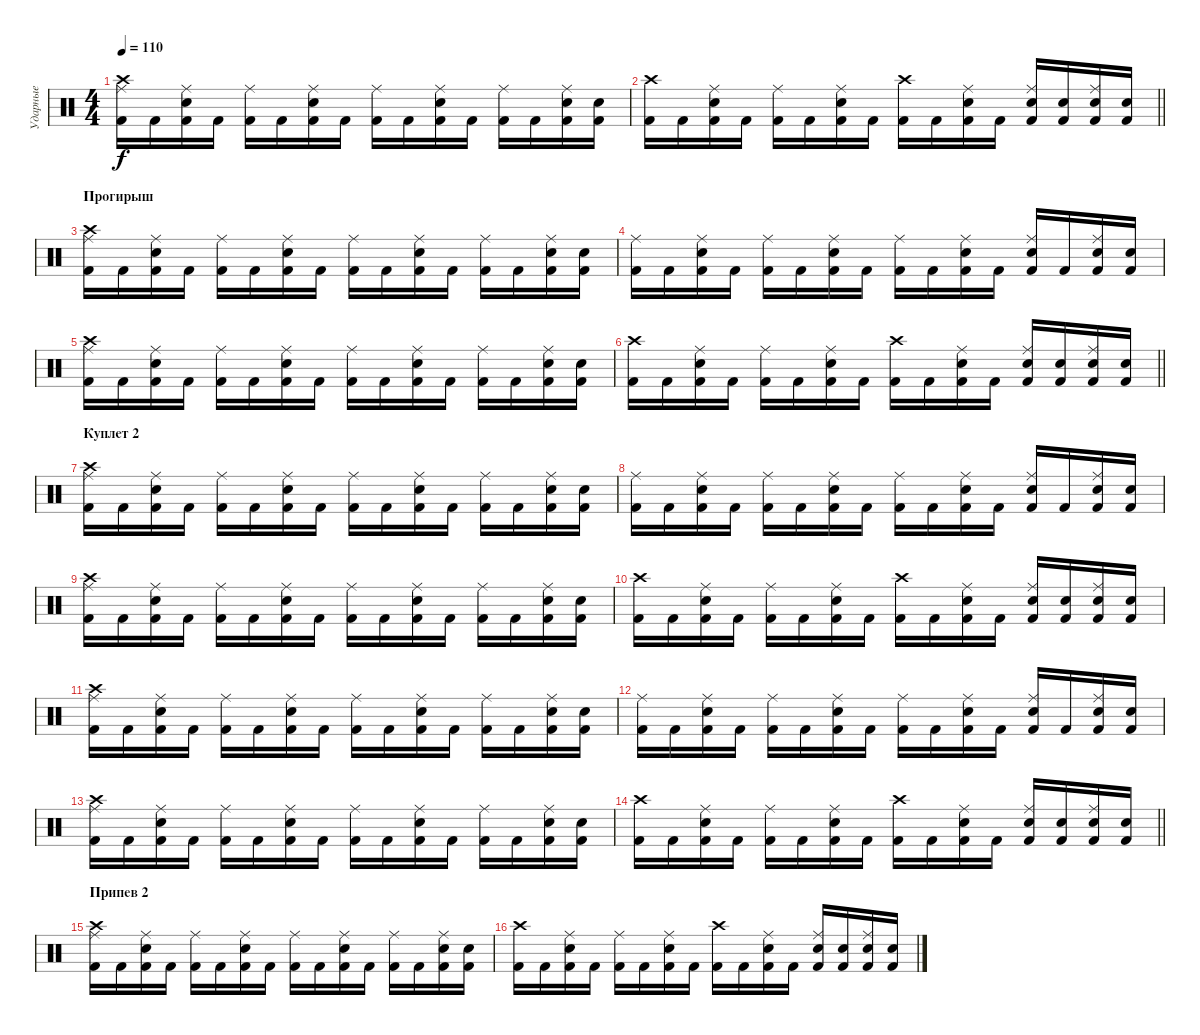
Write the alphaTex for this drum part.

\track ("Ударные" "Ударные") {instrument percussion}
\staff {score}
\articulation defaults
\ts (4 4)
\tempo 110
\clef neutral
\ks c
("Kick (hit) 2" "Crash high (hit)" "Ride (middle)").16{dy f} "Kick (hit) 2".16 ("Kick (hit) 2" "Ride (middle)" "Snare (hit) 2").16 "Kick (hit) 2".16 ("Kick (hit) 2" "Ride (middle)").16 "Kick (hit) 2".16 ("Kick (hit) 2" "Ride (middle)" "Snare (hit) 2").16 "Kick (hit) 2".16 ("Kick (hit) 2" "Ride (middle)").16 "Kick (hit) 2".16 ("Kick (hit) 2" "Ride (middle)" "Snare (hit) 2").16 "Kick (hit) 2".16 ("Kick (hit) 2" "Ride (middle)").16 "Kick (hit) 2".16 ("Kick (hit) 2" "Ride (middle)" "Snare (hit) 2").16 ("Kick (hit) 2" "Snare (hit) 2").16 |
\barLineRight lightlight
("Kick (hit) 2" "Crash high (hit)").16 "Kick (hit) 2".16 ("Kick (hit) 2" "Ride (middle)" "Snare (hit) 2").16 "Kick (hit) 2".16 ("Kick (hit) 2" "Ride (middle)").16 "Kick (hit) 2".16 ("Kick (hit) 2" "Ride (middle)" "Snare (hit) 2").16 "Kick (hit) 2".16 ("Kick (hit) 2" "Crash high (hit)").16 "Kick (hit) 2".16 ("Kick (hit) 2" "Ride (middle)" "Snare (hit) 2").16 "Kick (hit) 2".16 ("Kick (hit) 2" "Ride (middle)" "Snare (hit) 2").16 ("Kick (hit) 2" "Snare (hit) 2").16 ("Kick (hit) 2" "Ride (middle)" "Snare (hit) 2").16 ("Kick (hit) 2" "Snare (hit) 2").16 |
\section ("" "Прогирыш")
("Kick (hit) 2" "Crash high (hit)" "Ride (middle)").16 "Kick (hit) 2".16 ("Kick (hit) 2" "Ride (middle)" "Snare (hit) 2").16 "Kick (hit) 2".16 ("Kick (hit) 2" "Ride (middle)").16 "Kick (hit) 2".16 ("Kick (hit) 2" "Ride (middle)" "Snare (hit) 2").16 "Kick (hit) 2".16 ("Kick (hit) 2" "Ride (middle)").16 "Kick (hit) 2".16 ("Kick (hit) 2" "Ride (middle)" "Snare (hit) 2").16 "Kick (hit) 2".16 ("Kick (hit) 2" "Ride (middle)").16 "Kick (hit) 2".16 ("Kick (hit) 2" "Ride (middle)" "Snare (hit) 2").16 ("Kick (hit) 2" "Snare (hit) 2").16 |
("Kick (hit) 2" "Ride (middle)").16 "Kick (hit) 2".16 ("Kick (hit) 2" "Ride (middle)" "Snare (hit) 2").16 "Kick (hit) 2".16 ("Kick (hit) 2" "Ride (middle)").16 "Kick (hit) 2".16 ("Kick (hit) 2" "Ride (middle)" "Snare (hit) 2").16 "Kick (hit) 2".16 ("Kick (hit) 2" "Ride (middle)").16 "Kick (hit) 2".16 ("Kick (hit) 2" "Ride (middle)" "Snare (hit) 2").16 "Kick (hit) 2".16 ("Kick (hit) 2" "Ride (middle)" "Snare (hit) 2").16 "Kick (hit) 2".16 ("Kick (hit) 2" "Ride (middle)" "Snare (hit) 2").16 ("Kick (hit) 2" "Snare (hit) 2").16 |
("Kick (hit) 2" "Crash high (hit)" "Ride (middle)").16 "Kick (hit) 2".16 ("Kick (hit) 2" "Ride (middle)" "Snare (hit) 2").16 "Kick (hit) 2".16 ("Kick (hit) 2" "Ride (middle)").16 "Kick (hit) 2".16 ("Kick (hit) 2" "Ride (middle)" "Snare (hit) 2").16 "Kick (hit) 2".16 ("Kick (hit) 2" "Ride (middle)").16 "Kick (hit) 2".16 ("Kick (hit) 2" "Ride (middle)" "Snare (hit) 2").16 "Kick (hit) 2".16 ("Kick (hit) 2" "Ride (middle)").16 "Kick (hit) 2".16 ("Kick (hit) 2" "Ride (middle)" "Snare (hit) 2").16 ("Kick (hit) 2" "Snare (hit) 2").16 |
\barLineRight lightlight
("Kick (hit) 2" "Crash high (hit)").16 "Kick (hit) 2".16 ("Kick (hit) 2" "Ride (middle)" "Snare (hit) 2").16 "Kick (hit) 2".16 ("Kick (hit) 2" "Ride (middle)").16 "Kick (hit) 2".16 ("Kick (hit) 2" "Ride (middle)" "Snare (hit) 2").16 "Kick (hit) 2".16 ("Kick (hit) 2" "Crash high (hit)").16 "Kick (hit) 2".16 ("Kick (hit) 2" "Ride (middle)" "Snare (hit) 2").16 "Kick (hit) 2".16 ("Kick (hit) 2" "Ride (middle)" "Snare (hit) 2").16 ("Kick (hit) 2" "Snare (hit) 2").16 ("Kick (hit) 2" "Ride (middle)" "Snare (hit) 2").16 ("Kick (hit) 2" "Snare (hit) 2").16 |
\section ("" "Куплет 2")
("Kick (hit) 2" "Crash high (hit)" "Ride (middle)").16 "Kick (hit) 2".16 ("Kick (hit) 2" "Ride (middle)" "Snare (hit) 2").16 "Kick (hit) 2".16 ("Kick (hit) 2" "Ride (middle)").16 "Kick (hit) 2".16 ("Kick (hit) 2" "Ride (middle)" "Snare (hit) 2").16 "Kick (hit) 2".16 ("Kick (hit) 2" "Ride (middle)").16 "Kick (hit) 2".16 ("Kick (hit) 2" "Ride (middle)" "Snare (hit) 2").16 "Kick (hit) 2".16 ("Kick (hit) 2" "Ride (middle)").16 "Kick (hit) 2".16 ("Kick (hit) 2" "Ride (middle)" "Snare (hit) 2").16 ("Kick (hit) 2" "Snare (hit) 2").16 |
("Kick (hit) 2" "Ride (middle)").16 "Kick (hit) 2".16 ("Kick (hit) 2" "Ride (middle)" "Snare (hit) 2").16 "Kick (hit) 2".16 ("Kick (hit) 2" "Ride (middle)").16 "Kick (hit) 2".16 ("Kick (hit) 2" "Ride (middle)" "Snare (hit) 2").16 "Kick (hit) 2".16 ("Kick (hit) 2" "Ride (middle)").16 "Kick (hit) 2".16 ("Kick (hit) 2" "Ride (middle)" "Snare (hit) 2").16 "Kick (hit) 2".16 ("Kick (hit) 2" "Ride (middle)" "Snare (hit) 2").16 "Kick (hit) 2".16 ("Kick (hit) 2" "Ride (middle)" "Snare (hit) 2").16 ("Kick (hit) 2" "Snare (hit) 2").16 |
("Kick (hit) 2" "Crash high (hit)" "Ride (middle)").16 "Kick (hit) 2".16 ("Kick (hit) 2" "Ride (middle)" "Snare (hit) 2").16 "Kick (hit) 2".16 ("Kick (hit) 2" "Ride (middle)").16 "Kick (hit) 2".16 ("Kick (hit) 2" "Ride (middle)" "Snare (hit) 2").16 "Kick (hit) 2".16 ("Kick (hit) 2" "Ride (middle)").16 "Kick (hit) 2".16 ("Kick (hit) 2" "Ride (middle)" "Snare (hit) 2").16 "Kick (hit) 2".16 ("Kick (hit) 2" "Ride (middle)").16 "Kick (hit) 2".16 ("Kick (hit) 2" "Ride (middle)" "Snare (hit) 2").16 ("Kick (hit) 2" "Snare (hit) 2").16 |
("Kick (hit) 2" "Crash high (hit)").16 "Kick (hit) 2".16 ("Kick (hit) 2" "Ride (middle)" "Snare (hit) 2").16 "Kick (hit) 2".16 ("Kick (hit) 2" "Ride (middle)").16 "Kick (hit) 2".16 ("Kick (hit) 2" "Ride (middle)" "Snare (hit) 2").16 "Kick (hit) 2".16 ("Kick (hit) 2" "Crash high (hit)").16 "Kick (hit) 2".16 ("Kick (hit) 2" "Ride (middle)" "Snare (hit) 2").16 "Kick (hit) 2".16 ("Kick (hit) 2" "Ride (middle)" "Snare (hit) 2").16 ("Kick (hit) 2" "Snare (hit) 2").16 ("Kick (hit) 2" "Ride (middle)" "Snare (hit) 2").16 ("Kick (hit) 2" "Snare (hit) 2").16 |
("Kick (hit) 2" "Crash high (hit)" "Ride (middle)").16 "Kick (hit) 2".16 ("Kick (hit) 2" "Ride (middle)" "Snare (hit) 2").16 "Kick (hit) 2".16 ("Kick (hit) 2" "Ride (middle)").16 "Kick (hit) 2".16 ("Kick (hit) 2" "Ride (middle)" "Snare (hit) 2").16 "Kick (hit) 2".16 ("Kick (hit) 2" "Ride (middle)").16 "Kick (hit) 2".16 ("Kick (hit) 2" "Ride (middle)" "Snare (hit) 2").16 "Kick (hit) 2".16 ("Kick (hit) 2" "Ride (middle)").16 "Kick (hit) 2".16 ("Kick (hit) 2" "Ride (middle)" "Snare (hit) 2").16 ("Kick (hit) 2" "Snare (hit) 2").16 |
("Kick (hit) 2" "Ride (middle)").16 "Kick (hit) 2".16 ("Kick (hit) 2" "Ride (middle)" "Snare (hit) 2").16 "Kick (hit) 2".16 ("Kick (hit) 2" "Ride (middle)").16 "Kick (hit) 2".16 ("Kick (hit) 2" "Ride (middle)" "Snare (hit) 2").16 "Kick (hit) 2".16 ("Kick (hit) 2" "Ride (middle)").16 "Kick (hit) 2".16 ("Kick (hit) 2" "Ride (middle)" "Snare (hit) 2").16 "Kick (hit) 2".16 ("Kick (hit) 2" "Ride (middle)" "Snare (hit) 2").16 "Kick (hit) 2".16 ("Kick (hit) 2" "Ride (middle)" "Snare (hit) 2").16 ("Kick (hit) 2" "Snare (hit) 2").16 |
("Kick (hit) 2" "Crash high (hit)" "Ride (middle)").16 "Kick (hit) 2".16 ("Kick (hit) 2" "Ride (middle)" "Snare (hit) 2").16 "Kick (hit) 2".16 ("Kick (hit) 2" "Ride (middle)").16 "Kick (hit) 2".16 ("Kick (hit) 2" "Ride (middle)" "Snare (hit) 2").16 "Kick (hit) 2".16 ("Kick (hit) 2" "Ride (middle)").16 "Kick (hit) 2".16 ("Kick (hit) 2" "Ride (middle)" "Snare (hit) 2").16 "Kick (hit) 2".16 ("Kick (hit) 2" "Ride (middle)").16 "Kick (hit) 2".16 ("Kick (hit) 2" "Ride (middle)" "Snare (hit) 2").16 ("Kick (hit) 2" "Snare (hit) 2").16 |
\barLineRight lightlight
("Kick (hit) 2" "Crash high (hit)").16 "Kick (hit) 2".16 ("Kick (hit) 2" "Ride (middle)" "Snare (hit) 2").16 "Kick (hit) 2".16 ("Kick (hit) 2" "Ride (middle)").16 "Kick (hit) 2".16 ("Kick (hit) 2" "Ride (middle)" "Snare (hit) 2").16 "Kick (hit) 2".16 ("Kick (hit) 2" "Crash high (hit)").16 "Kick (hit) 2".16 ("Kick (hit) 2" "Ride (middle)" "Snare (hit) 2").16 "Kick (hit) 2".16 ("Kick (hit) 2" "Ride (middle)" "Snare (hit) 2").16 ("Kick (hit) 2" "Snare (hit) 2").16 ("Kick (hit) 2" "Ride (middle)" "Snare (hit) 2").16 ("Kick (hit) 2" "Snare (hit) 2").16 |
\section ("" "Припев 2")
("Kick (hit) 2" "Crash high (hit)" "Ride (middle)").16 "Kick (hit) 2".16 ("Kick (hit) 2" "Ride (middle)" "Snare (hit) 2").16 "Kick (hit) 2".16 ("Kick (hit) 2" "Ride (middle)").16 "Kick (hit) 2".16 ("Kick (hit) 2" "Ride (middle)" "Snare (hit) 2").16 "Kick (hit) 2".16 ("Kick (hit) 2" "Ride (middle)").16 "Kick (hit) 2".16 ("Kick (hit) 2" "Ride (middle)" "Snare (hit) 2").16 "Kick (hit) 2".16 ("Kick (hit) 2" "Ride (middle)").16 "Kick (hit) 2".16 ("Kick (hit) 2" "Ride (middle)" "Snare (hit) 2").16 ("Kick (hit) 2" "Snare (hit) 2").16 |
("Kick (hit) 2" "Crash high (hit)").16 "Kick (hit) 2".16 ("Kick (hit) 2" "Ride (middle)" "Snare (hit) 2").16 "Kick (hit) 2".16 ("Kick (hit) 2" "Ride (middle)").16 "Kick (hit) 2".16 ("Kick (hit) 2" "Ride (middle)" "Snare (hit) 2").16 "Kick (hit) 2".16 ("Kick (hit) 2" "Crash high (hit)").16 "Kick (hit) 2".16 ("Kick (hit) 2" "Ride (middle)" "Snare (hit) 2").16 "Kick (hit) 2".16 ("Kick (hit) 2" "Ride (middle)" "Snare (hit) 2").16 ("Kick (hit) 2" "Snare (hit) 2").16 ("Kick (hit) 2" "Ride (middle)" "Snare (hit) 2").16 ("Kick (hit) 2" "Snare (hit) 2").16
